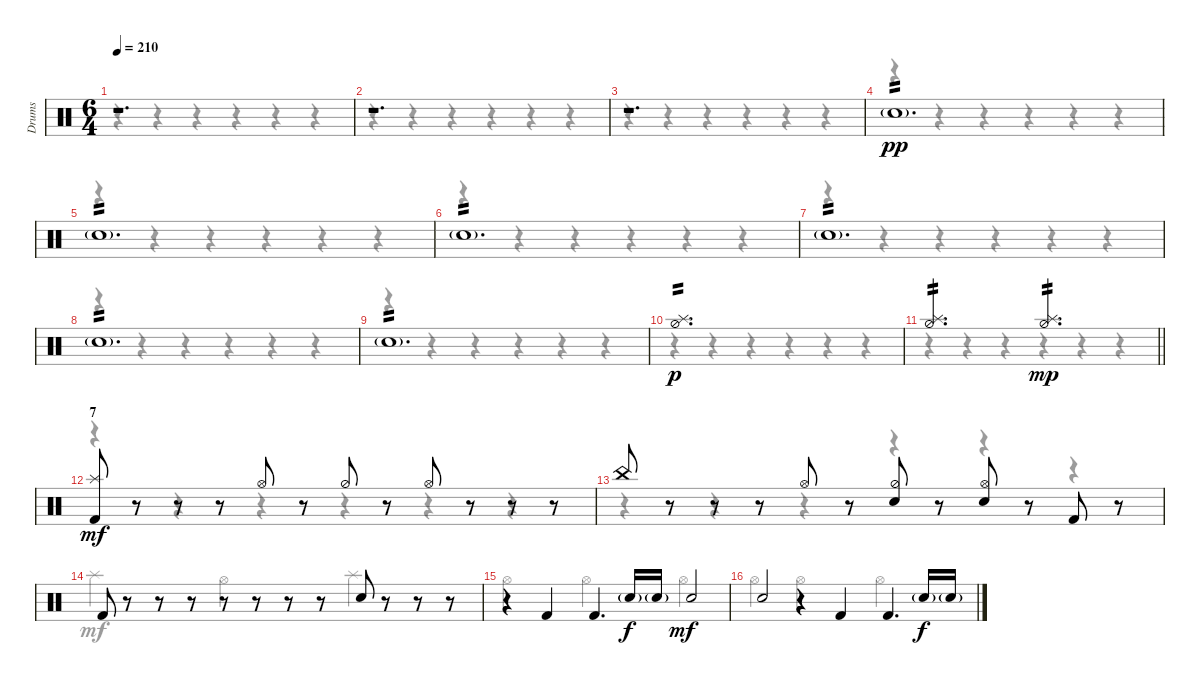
\track ("Drums" "Drums") {instrument percussion}
\staff {score}
\articulation defaults
\voice
\ts (6 4)
\tempo 210
\clef neutral
\ks c
r.1{d dy mp} |
r.1{d} |
r.1{d} |
"Snare (hit) 2"{g}.1{d tp 2 dy pp} |
"Snare (hit) 2"{g}.1{d tp 2} |
"Snare (hit) 2"{g}.1{d tp 2} |
"Snare (hit) 2"{g}.1{d tp 2} |
"Snare (hit) 2"{g}.1{d tp 2} |
"Snare (hit) 2"{g}.1{d tp 2} |
("Hi-Hat (half)" "Splash (hit)").1{d tp 2 dy p} |
\barLineRight lightlight
("Hi-Hat (half)" "Splash (hit)").2{d tp 2} ("Hi-Hat (half)" "Splash (hit)").2{d tp 2 dy mp} |
\section ("" "7")
("Kick (hit) 2" "Splash (hit)").8{dy mf} r.8 r.8 r.8 "Hi-Hat (open)".8 r.8 "Hi-Hat (half)".8 r.8 "Hi-Hat (open)".8 r.8 r.8 r.8 |
"China (hit)".8 r.8 r.8 r.8 "Hi-Hat (open)".8 r.8 ("Hi-Hat (half)" "Snare (hit) 2").8 r.8 ("Hi-Hat (open)" "Snare (hit) 2").8 r.8 "Kick (hit) 2".8 r.8 |
"Kick (hit) 2".8 r.8 r.8 r.8 r.8 r.8 r.8 r.8 "Snare (hit) 2".8 r.8 r.8 r.8 |
r.4 "Kick (hit) 2".4 "Kick (hit) 2".4{d} "Snare (hit) 2"{g}.16{dy f} "Snare (hit) 2"{g}.16 "Snare (hit) 2".2{dy mf} |
"Snare (hit) 2".2 r.4 "Kick (hit) 2".4 "Kick (hit) 2".4{d} "Snare (hit) 2"{g}.16{dy f} "Snare (hit) 2"{g}.16
\voice
\clef neutral
\ottava regular
\simile none
\ks c
r.4{dy mf} r.4 r.4 r.4 r.4 r.4 |
r.4 r.4 r.4 r.4 r.4 r.4 |
r.4 r.4 r.4 r.4 r.4 r.4 |
r.4 r.4 r.4 r.4 r.4 r.4 |
r.4 r.4 r.4 r.4 r.4 r.4 |
r.4 r.4 r.4 r.4 r.4 r.4 |
r.4 r.4 r.4 r.4 r.4 r.4 |
r.4 r.4 r.4 r.4 r.4 r.4 |
r.4 r.4 r.4 r.4 r.4 r.4 |
r.4 r.4 r.4 r.4 r.4 r.4 |
\barLineRight lightlight
r.4 r.4 r.4 r.4 r.4 r.4 |
r.4 r.4 r.4 r.4 r.4 r.4 |
r.4 r.4 r.4 r.4 r.4 r.4 |
"Splash (hit)".2 "Hi-Hat (open)".2 "Splash (hit)".2 |
"Hi-Hat (open)".2 "Hi-Hat (open)".2 "Hi-Hat (open)".2 |
"Hi-Hat (open)".2 "Hi-Hat (open)".2 "Hi-Hat (open)".2
